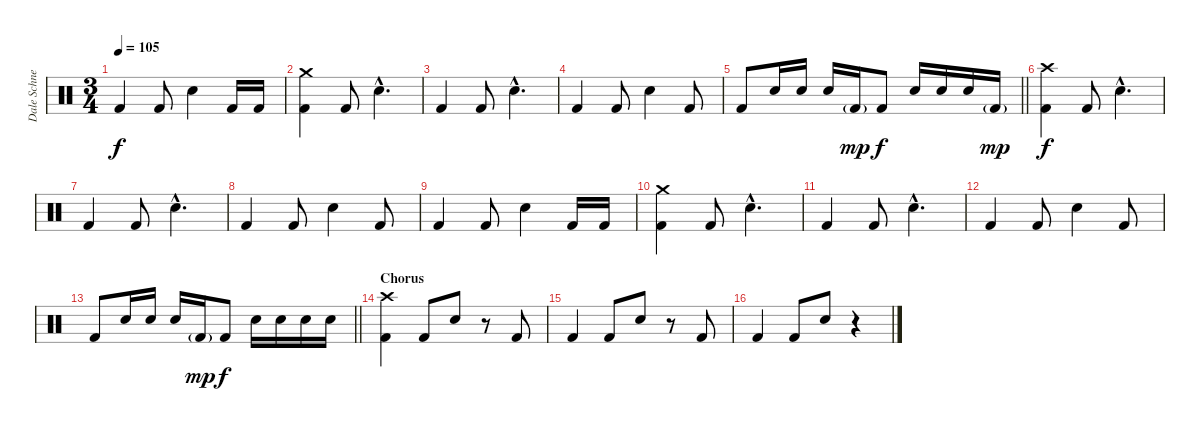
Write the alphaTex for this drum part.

\track ("Dale Schnettler (Drums)" "Dale Schne") {instrument percussion}
\staff {score}
\articulation defaults
\ts (3 4)
\tempo 105
\clef neutral
\ks c "Kick (hit) 2".4{dy f} "Kick (hit) 2".8 "Electric Snare (hit)".4 "Kick (hit) 2".16 "Kick (hit) 2".16
|
("Crash medium (hit)" "Kick (hit) 2").4 "Kick (hit) 2".8 "Electric Snare (hit)"{hac}.4{d} |
"Kick (hit) 2".4 "Kick (hit) 2".8 "Electric Snare (hit)"{hac}.4{d} |
"Kick (hit) 2".4 "Kick (hit) 2".8 "Electric Snare (hit)".4 "Kick (hit) 2".8 |
\barLineRight lightlight "Kick (hit) 2".8 "Electric Snare (hit)".16 "Electric Snare (hit)".16 "Electric Snare (hit)".16 "Kick (hit) 2"{g}.16{dy mp} "Kick (hit) 2".8{dy f} "Electric Snare (hit)".16 "Electric Snare (hit)".16 "Electric Snare (hit)".16 "Kick (hit) 2"{g}.16{dy mp}
|
("Crash high (hit)" "Kick (hit) 2").4{dy f} "Kick (hit) 2".8 "Electric Snare (hit)"{hac}.4{d} |
"Kick (hit) 2".4 "Kick (hit) 2".8 "Electric Snare (hit)"{hac}.4{d} |
"Kick (hit) 2".4 "Kick (hit) 2".8 "Electric Snare (hit)".4 "Kick (hit) 2".8 |
"Kick (hit) 2".4 "Kick (hit) 2".8 "Electric Snare (hit)".4 "Kick (hit) 2".16 "Kick (hit) 2".16 |
("Crash medium (hit)" "Kick (hit) 2").4 "Kick (hit) 2".8 "Electric Snare (hit)"{hac}.4{d} |
"Kick (hit) 2".4 "Kick (hit) 2".8 "Electric Snare (hit)"{hac}.4{d} |
"Kick (hit) 2".4 "Kick (hit) 2".8 "Electric Snare (hit)".4 "Kick (hit) 2".8 |
\barLineRight lightlight "Kick (hit) 2".8 "Electric Snare (hit)".16 "Electric Snare (hit)".16 "Electric Snare (hit)".16 "Kick (hit) 2"{g}.16{dy mp} "Kick (hit) 2".8{dy f} "Electric Snare (hit)".16 "Electric Snare (hit)".16 "Electric Snare (hit)".16 "Electric Snare (hit)".16
|
\section ("" "Chorus")
("Crash high (hit)" "Kick (hit) 2").4 "Kick (hit) 2".8 "Electric Snare (hit)".8 r.8 "Kick (hit) 2".8 |
"Kick (hit) 2".4 "Kick (hit) 2".8 "Electric Snare (hit)".8 r.8 "Kick (hit) 2".8 |
"Kick (hit) 2".4 "Kick (hit) 2".8 "Electric Snare (hit)".8 r.4
